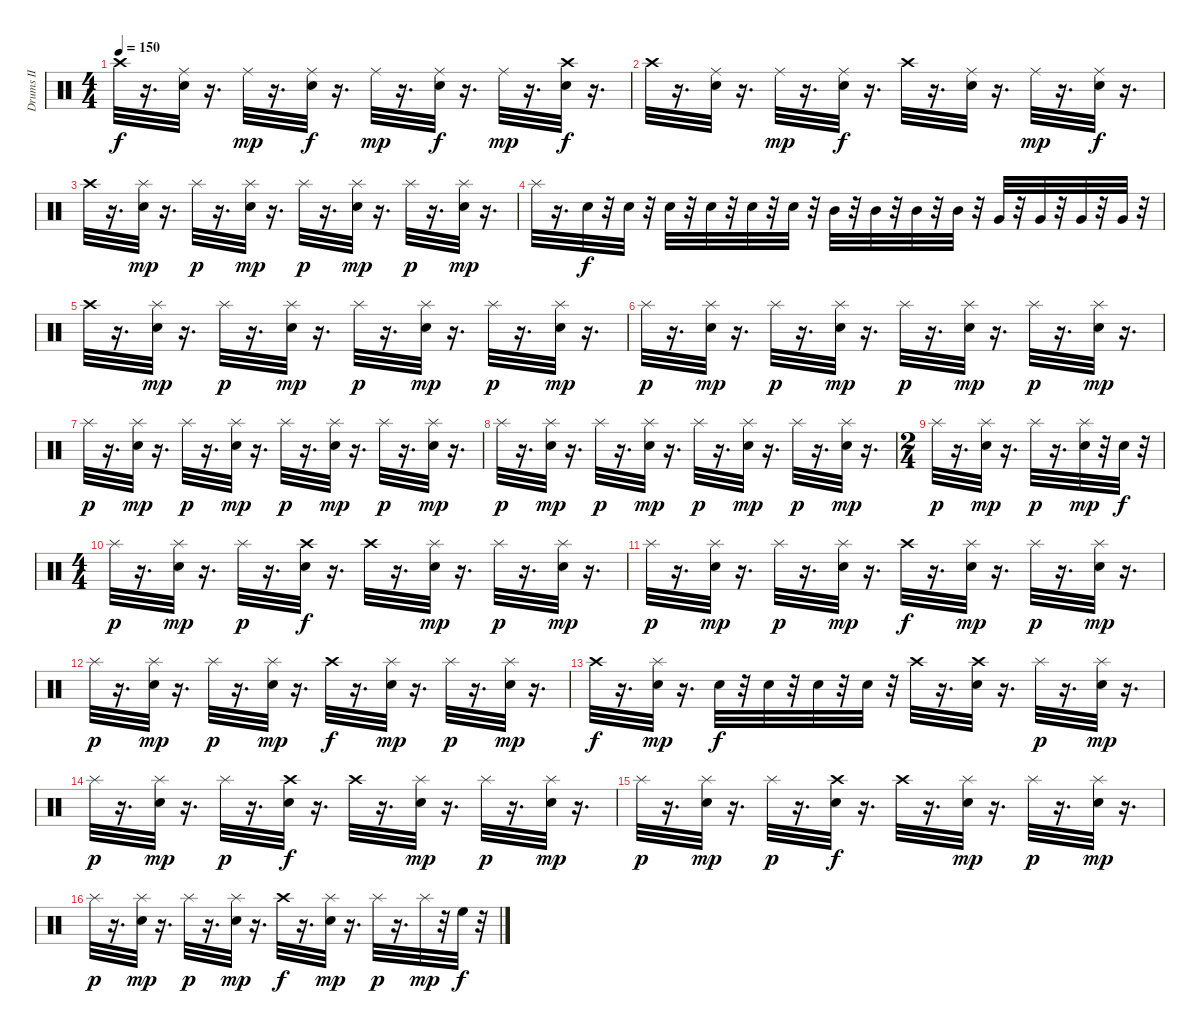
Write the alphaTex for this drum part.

\track ("Drums II" "Drums II") {instrument percussion}
\staff {score}
\articulation defaults
\ts (4 4)
\tempo 150
\clef neutral
\ks c "Crash high (hit)".32{dy f}
r.16{d} ("Snare (hit) 2" "Ride (middle)").32 r.16{d} "Ride (middle)".32{dy mp} r.16{d} ("Snare (hit) 2" "Ride (middle)").32{dy f} r.16{d} "Ride (middle)".32{dy mp} r.16{d} ("Snare (hit) 2" "Ride (middle)").32{dy f} r.16{d} "Ride (middle)".32{dy mp} r.16{d} ("Snare (hit) 2" "Crash high (hit)").32{dy f} r.16{d} |
"Crash high (hit)".32 r.16{d} ("Snare (hit) 2" "Ride (middle)").32 r.16{d} "Ride (middle)".32{dy mp} r.16{d} ("Snare (hit) 2" "Ride (middle)").32{dy f} r.16{d} "Crash high (hit)".32 r.16{d} ("Snare (hit) 2" "Ride (middle)").32 r.16{d} "Ride (middle)".32{dy mp} r.16{d} ("Snare (hit) 2" "Ride (middle)").32{dy f} r.16{d} |
"Crash high (hit)".32 r.16{d} ("Splash (hit)" "Snare (hit) 2").32{dy mp} r.16{d} "Splash (hit)".32{dy p} r.16{d} ("Splash (hit)" "Snare (hit) 2").32{dy mp} r.16{d} "Splash (hit)".32{dy p} r.16{d} ("Splash (hit)" "Snare (hit) 2").32{dy mp} r.16{d} "Splash (hit)".32{dy p} r.16{d} ("Splash (hit)" "Snare (hit) 2").32{dy mp} r.16{d} |
"Splash (hit)".32 r.16{d} "Snare (hit) 2".32{dy f} r.32 "Snare (hit) 2".32 r.32 "Snare (hit) 2".32 r.32 "Snare (hit) 2".32 r.32 "Snare (hit) 2".32 r.32 "Snare (hit) 2".32 r.32 "Mid Tom (hit)".32 r.32 "Mid Tom (hit)".32 r.32 "Mid Tom (hit)".32 r.32 "Mid Tom (hit)".32 r.32 "Very Low Tom (hit)".32 r.32 "Very Low Tom (hit)".32 r.32 "Very Low Tom (hit)".32 r.32 "Very Low Tom (hit)".32 r.32 |
"Crash high (hit)".32 r.16{d} ("Splash (hit)" "Snare (hit) 2").32{dy mp} r.16{d} "Splash (hit)".32{dy p} r.16{d} ("Splash (hit)" "Snare (hit) 2").32{dy mp} r.16{d} "Splash (hit)".32{dy p} r.16{d} ("Splash (hit)" "Snare (hit) 2").32{dy mp} r.16{d} "Splash (hit)".32{dy p} r.16{d} ("Splash (hit)" "Snare (hit) 2").32{dy mp} r.16{d} |
"Splash (hit)".32{dy p} r.16{d} ("Splash (hit)" "Snare (hit) 2").32{dy mp} r.16{d} "Splash (hit)".32{dy p} r.16{d} ("Splash (hit)" "Snare (hit) 2").32{dy mp} r.16{d} "Splash (hit)".32{dy p} r.16{d} ("Splash (hit)" "Snare (hit) 2").32{dy mp} r.16{d} "Splash (hit)".32{dy p} r.16{d} ("Splash (hit)" "Snare (hit) 2").32{dy mp} r.16{d} |
"Splash (hit)".32{dy p} r.16{d} ("Splash (hit)" "Snare (hit) 2").32{dy mp} r.16{d} "Splash (hit)".32{dy p} r.16{d} ("Splash (hit)" "Snare (hit) 2").32{dy mp} r.16{d} "Splash (hit)".32{dy p} r.16{d} ("Splash (hit)" "Snare (hit) 2").32{dy mp} r.16{d} "Splash (hit)".32{dy p} r.16{d} ("Splash (hit)" "Snare (hit) 2").32{dy mp} r.16{d} |
"Splash (hit)".32{dy p} r.16{d} ("Splash (hit)" "Snare (hit) 2").32{dy mp} r.16{d} "Splash (hit)".32{dy p} r.16{d} ("Splash (hit)" "Snare (hit) 2").32{dy mp} r.16{d} "Splash (hit)".32{dy p} r.16{d} ("Splash (hit)" "Snare (hit) 2").32{dy mp} r.16{d} "Splash (hit)".32{dy p} r.16{d} ("Splash (hit)" "Snare (hit) 2").32{dy mp} r.16{d} |
\ts (2 4)
"Splash (hit)".32{dy p} r.16{d} ("Splash (hit)" "Snare (hit) 2").32{dy mp} r.16{d} "Splash (hit)".32{dy p} r.16{d} ("Splash (hit)" "Snare (hit) 2").32{dy mp} r.32 "Snare (hit) 2".32{dy f} r.32 |
\ts (4 4)
"Splash (hit)".32{dy p} r.16{d} ("Splash (hit)" "Snare (hit) 2").32{dy mp} r.16{d} "Splash (hit)".32{dy p} r.16{d} ("Crash high (hit)" "Snare (hit) 2").32{dy f} r.16{d} "Crash high (hit)".32 r.16{d} ("Splash (hit)" "Snare (hit) 2").32{dy mp} r.16{d} "Splash (hit)".32{dy p} r.16{d} ("Splash (hit)" "Snare (hit) 2").32{dy mp} r.16{d} |
"Splash (hit)".32{dy p} r.16{d} ("Splash (hit)" "Snare (hit) 2").32{dy mp} r.16{d} "Splash (hit)".32{dy p} r.16{d} ("Splash (hit)" "Snare (hit) 2").32{dy mp} r.16{d} "Crash high (hit)".32{dy f} r.16{d} ("Splash (hit)" "Snare (hit) 2").32{dy mp} r.16{d} "Splash (hit)".32{dy p} r.16{d} ("Splash (hit)" "Snare (hit) 2").32{dy mp} r.16{d} |
"Splash (hit)".32{dy p} r.16{d} ("Splash (hit)" "Snare (hit) 2").32{dy mp} r.16{d} "Splash (hit)".32{dy p} r.16{d} ("Splash (hit)" "Snare (hit) 2").32{dy mp} r.16{d} "Crash high (hit)".32{dy f} r.16{d} ("Splash (hit)" "Snare (hit) 2").32{dy mp} r.16{d} "Splash (hit)".32{dy p} r.16{d} ("Splash (hit)" "Snare (hit) 2").32{dy mp} r.16{d} |
"Crash high (hit)".32{dy f} r.16{d} ("Splash (hit)" "Snare (hit) 2").32{dy mp} r.16{d} "Snare (hit) 2".32{dy f} r.32 "Snare (hit) 2".32 r.32 "Snare (hit) 2".32 r.32 "Snare (hit) 2".32 r.32 "Crash high (hit)".32 r.16{d} ("Crash high (hit)" "Snare (hit) 2").32 r.16{d} "Splash (hit)".32{dy p} r.16{d} ("Splash (hit)" "Snare (hit) 2").32{dy mp} r.16{d} |
"Splash (hit)".32{dy p} r.16{d} ("Splash (hit)" "Snare (hit) 2").32{dy mp} r.16{d} "Splash (hit)".32{dy p} r.16{d} ("Crash high (hit)" "Snare (hit) 2").32{dy f} r.16{d} "Crash high (hit)".32 r.16{d} ("Splash (hit)" "Snare (hit) 2").32{dy mp} r.16{d} "Splash (hit)".32{dy p} r.16{d} ("Splash (hit)" "Snare (hit) 2").32{dy mp} r.16{d} |
"Splash (hit)".32{dy p} r.16{d} ("Splash (hit)" "Snare (hit) 2").32{dy mp} r.16{d} "Splash (hit)".32{dy p} r.16{d} ("Crash high (hit)" "Snare (hit) 2").32{dy f} r.16{d} "Crash high (hit)".32 r.16{d} ("Splash (hit)" "Snare (hit) 2").32{dy mp} r.16{d} "Splash (hit)".32{dy p} r.16{d} ("Splash (hit)" "Snare (hit) 2").32{dy mp} r.16{d} |
"Splash (hit)".32{dy p} r.16{d} ("Splash (hit)" "Snare (hit) 2").32{dy mp} r.16{d} "Splash (hit)".32{dy p} r.16{d} ("Splash (hit)" "Snare (hit) 2").32{dy mp} r.16{d} "Crash high (hit)".32{dy f} r.16{d} ("Splash (hit)" "Snare (hit) 2").32{dy mp} r.16{d} "Splash (hit)".32{dy p} r.16{d} "Splash (hit)".32{dy mp} r.32 "High Floor Tom (hit)".32{dy f} r.32
